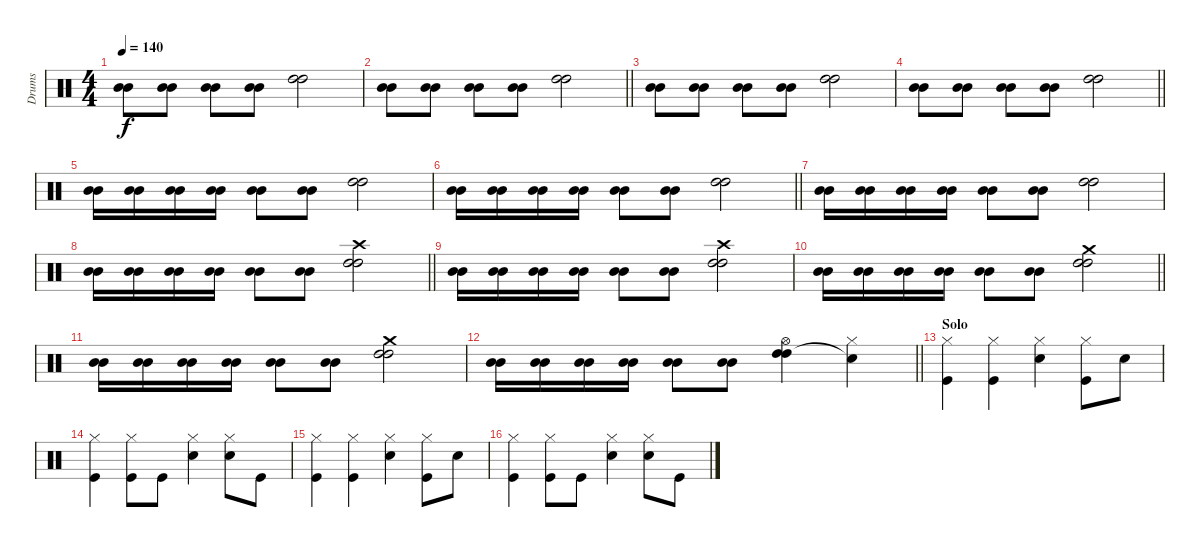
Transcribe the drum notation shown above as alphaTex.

\track ("Drums" "Drums") {instrument percussion}
\staff {score}
\articulation defaults
\ts (4 4)
\tempo 140
\clef neutral
\ks c
("Mid Tom (hit)" "Mid Tom (hit)").8{dy f} ("Mid Tom (hit)" "Mid Tom (hit)").8 ("Mid Tom (hit)" "Mid Tom (hit)").8 ("Mid Tom (hit)" "Mid Tom (hit)").8 ("High Tom (hit)" "High Tom (hit)").2 |
\barLineRight lightlight
("Mid Tom (hit)" "Mid Tom (hit)").8 ("Mid Tom (hit)" "Mid Tom (hit)").8 ("Mid Tom (hit)" "Mid Tom (hit)").8 ("Mid Tom (hit)" "Mid Tom (hit)").8 ("High Tom (hit)" "High Tom (hit)").2 |
("Mid Tom (hit)" "Mid Tom (hit)").8 ("Mid Tom (hit)" "Mid Tom (hit)").8 ("Mid Tom (hit)" "Mid Tom (hit)").8 ("Mid Tom (hit)" "Mid Tom (hit)").8 ("High Tom (hit)" "High Tom (hit)").2 |
\barLineRight lightlight
("Mid Tom (hit)" "Mid Tom (hit)").8 ("Mid Tom (hit)" "Mid Tom (hit)").8 ("Mid Tom (hit)" "Mid Tom (hit)").8 ("Mid Tom (hit)" "Mid Tom (hit)").8 ("High Tom (hit)" "High Tom (hit)").2 |
("Mid Tom (hit)" "Mid Tom (hit)").16 ("Mid Tom (hit)" "Mid Tom (hit)").16 ("Mid Tom (hit)" "Mid Tom (hit)").16 ("Mid Tom (hit)" "Mid Tom (hit)").16 ("Mid Tom (hit)" "Mid Tom (hit)").8 ("Mid Tom (hit)" "Mid Tom (hit)").8 ("High Tom (hit)" "High Tom (hit)").2 |
\barLineRight lightlight
("Mid Tom (hit)" "Mid Tom (hit)").16 ("Mid Tom (hit)" "Mid Tom (hit)").16 ("Mid Tom (hit)" "Mid Tom (hit)").16 ("Mid Tom (hit)" "Mid Tom (hit)").16 ("Mid Tom (hit)" "Mid Tom (hit)").8 ("Mid Tom (hit)" "Mid Tom (hit)").8 ("High Tom (hit)" "High Tom (hit)").2 |
("Mid Tom (hit)" "Mid Tom (hit)").16 ("Mid Tom (hit)" "Mid Tom (hit)").16 ("Mid Tom (hit)" "Mid Tom (hit)").16 ("Mid Tom (hit)" "Mid Tom (hit)").16 ("Mid Tom (hit)" "Mid Tom (hit)").8 ("Mid Tom (hit)" "Mid Tom (hit)").8 ("High Tom (hit)" "High Tom (hit)").2 |
\barLineRight lightlight
("Mid Tom (hit)" "Mid Tom (hit)").16 ("Mid Tom (hit)" "Mid Tom (hit)").16 ("Mid Tom (hit)" "Mid Tom (hit)").16 ("Mid Tom (hit)" "Mid Tom (hit)").16 ("Mid Tom (hit)" "Mid Tom (hit)").8 ("Mid Tom (hit)" "Mid Tom (hit)").8 ("High Tom (hit)" "High Tom (hit)" "Crash high (hit)").2 |
("Mid Tom (hit)" "Mid Tom (hit)").16 ("Mid Tom (hit)" "Mid Tom (hit)").16 ("Mid Tom (hit)" "Mid Tom (hit)").16 ("Mid Tom (hit)" "Mid Tom (hit)").16 ("Mid Tom (hit)" "Mid Tom (hit)").8 ("Mid Tom (hit)" "Mid Tom (hit)").8 ("High Tom (hit)" "High Tom (hit)" "Crash high (hit)").2 |
\barLineRight lightlight
("Mid Tom (hit)" "Mid Tom (hit)").16 ("Mid Tom (hit)" "Mid Tom (hit)").16 ("Mid Tom (hit)" "Mid Tom (hit)").16 ("Mid Tom (hit)" "Mid Tom (hit)").16 ("Mid Tom (hit)" "Mid Tom (hit)").8 ("Mid Tom (hit)" "Mid Tom (hit)").8 ("High Tom (hit)" "High Tom (hit)" "Crash medium (hit)").2 |
("Mid Tom (hit)" "Mid Tom (hit)").16 ("Mid Tom (hit)" "Mid Tom (hit)").16 ("Mid Tom (hit)" "Mid Tom (hit)").16 ("Mid Tom (hit)" "Mid Tom (hit)").16 ("Mid Tom (hit)" "Mid Tom (hit)").8 ("Mid Tom (hit)" "Mid Tom (hit)").8 ("High Tom (hit)" "High Tom (hit)" "Crash medium (hit)").2 |
\barLineRight lightlight
("Mid Tom (hit)" "Mid Tom (hit)").16 ("Mid Tom (hit)" "Mid Tom (hit)").16 ("Mid Tom (hit)" "Mid Tom (hit)").16 ("Mid Tom (hit)" "Mid Tom (hit)").16 ("Mid Tom (hit)" "Mid Tom (hit)").8 ("Mid Tom (hit)" "Mid Tom (hit)").8 ("High Tom (hit)" "High Tom (hit)" "Hi-Hat (open)").4 ("Snare (hit)"{t} "Hi-Hat (closed)").4 |
\section ("" "Solo")
("Hi-Hat (closed)" "Kick (hit)").4 ("Hi-Hat (closed)" "Kick (hit)").4 ("Hi-Hat (closed)" "Snare (hit) 2").4 ("Hi-Hat (closed)" "Kick (hit)").8 "Snare (hit) 2".8 |
("Hi-Hat (closed)" "Kick (hit)").4 ("Hi-Hat (closed)" "Kick (hit)").8 "Kick (hit)".8 ("Hi-Hat (closed)" "Snare (hit) 2").4 ("Hi-Hat (closed)" "Snare (hit) 2").8 "Kick (hit)".8 |
("Hi-Hat (closed)" "Kick (hit)").4 ("Hi-Hat (closed)" "Kick (hit)").4 ("Hi-Hat (closed)" "Snare (hit) 2").4 ("Hi-Hat (closed)" "Kick (hit)").8 "Snare (hit) 2".8 |
("Hi-Hat (closed)" "Kick (hit)").4 ("Hi-Hat (closed)" "Kick (hit)").8 "Kick (hit)".8 ("Hi-Hat (closed)" "Snare (hit) 2").4 ("Hi-Hat (closed)" "Snare (hit) 2").8 "Kick (hit)".8
